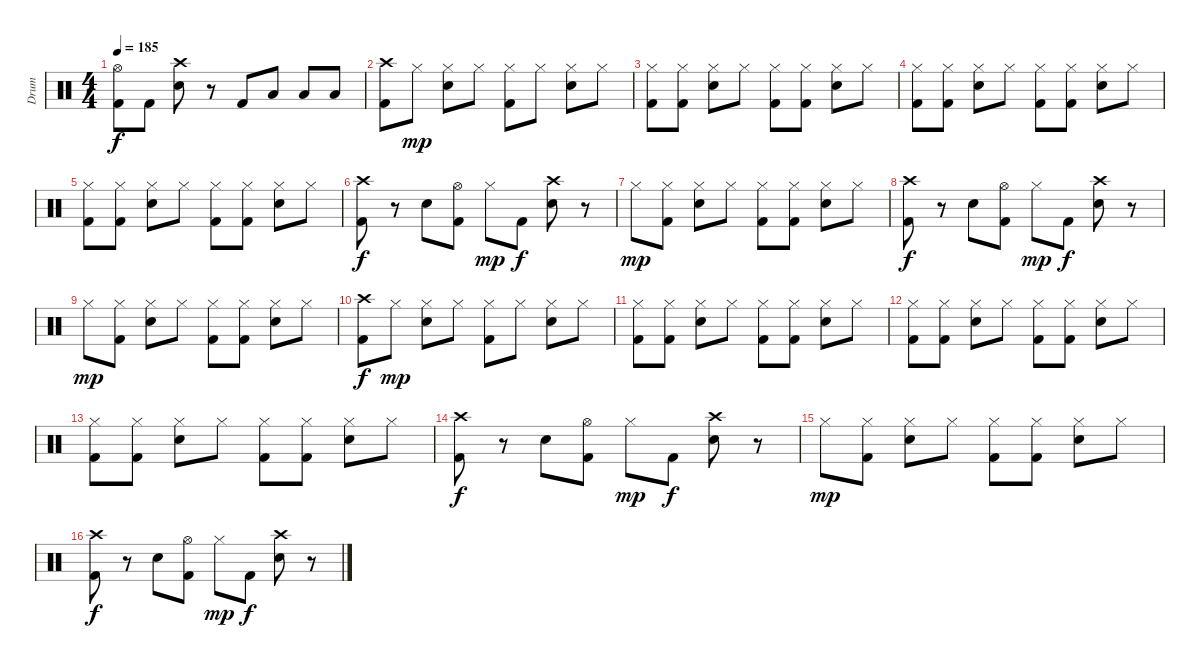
\track ("Drum" "Drum") {instrument percussion}
\staff {score}
\articulation defaults
\ts (4 4)
\tempo 185
\clef neutral
\ks c
("Kick (hit) 2" "Hi-Hat (open)").8{dy f} "Kick (hit) 2".8 ("Crash high (hit)" "Electric Snare (hit)").8 r.8 "Kick (hit) 2".8 "Low Tom (hit)".8 "Low Tom (hit)".8 "Low Tom (hit)".8 |
("Crash high (hit)" "Kick (hit) 2").8 "Hi-Hat (closed)".8{dy mp} ("Hi-Hat (closed)" "Electric Snare (hit)").8 "Hi-Hat (closed)".8 ("Hi-Hat (closed)" "Kick (hit) 2").8 "Hi-Hat (closed)".8 ("Hi-Hat (closed)" "Electric Snare (hit)").8 "Hi-Hat (closed)".8 |
("Hi-Hat (closed)" "Kick (hit) 2").8 ("Hi-Hat (closed)" "Kick (hit) 2").8 ("Hi-Hat (closed)" "Electric Snare (hit)").8 "Hi-Hat (closed)".8 ("Hi-Hat (closed)" "Kick (hit) 2").8 ("Hi-Hat (closed)" "Kick (hit) 2").8 ("Hi-Hat (closed)" "Electric Snare (hit)").8 "Hi-Hat (closed)".8 |
("Hi-Hat (closed)" "Kick (hit) 2").8 ("Hi-Hat (closed)" "Kick (hit) 2").8 ("Hi-Hat (closed)" "Electric Snare (hit)").8 "Hi-Hat (closed)".8 ("Hi-Hat (closed)" "Kick (hit) 2").8 ("Hi-Hat (closed)" "Kick (hit) 2").8 ("Hi-Hat (closed)" "Electric Snare (hit)").8 "Hi-Hat (closed)".8 |
("Hi-Hat (closed)" "Kick (hit) 2").8 ("Hi-Hat (closed)" "Kick (hit) 2").8 ("Hi-Hat (closed)" "Electric Snare (hit)").8 "Hi-Hat (closed)".8 ("Hi-Hat (closed)" "Kick (hit) 2").8 ("Hi-Hat (closed)" "Kick (hit) 2").8 ("Hi-Hat (closed)" "Electric Snare (hit)").8 "Hi-Hat (closed)".8 |
("Crash high (hit)" "Kick (hit) 2").8{dy f} r.8 "Electric Snare (hit)".8 ("Kick (hit) 2" "Hi-Hat (open)").8 "Hi-Hat (closed)".8{dy mp} "Kick (hit) 2".8{dy f} ("Crash high (hit)" "Electric Snare (hit)").8 r.8 |
"Hi-Hat (closed)".8{dy mp} ("Hi-Hat (closed)" "Kick (hit) 2").8 ("Hi-Hat (closed)" "Electric Snare (hit)").8 "Hi-Hat (closed)".8 ("Hi-Hat (closed)" "Kick (hit) 2").8 ("Hi-Hat (closed)" "Kick (hit) 2").8 ("Hi-Hat (closed)" "Electric Snare (hit)").8 "Hi-Hat (closed)".8 |
("Crash high (hit)" "Kick (hit) 2").8{dy f} r.8 "Electric Snare (hit)".8 ("Kick (hit) 2" "Hi-Hat (open)").8 "Hi-Hat (closed)".8{dy mp} "Kick (hit) 2".8{dy f} ("Crash high (hit)" "Electric Snare (hit)").8 r.8 |
"Hi-Hat (closed)".8{dy mp} ("Hi-Hat (closed)" "Kick (hit) 2").8 ("Hi-Hat (closed)" "Electric Snare (hit)").8 "Hi-Hat (closed)".8 ("Hi-Hat (closed)" "Kick (hit) 2").8 ("Hi-Hat (closed)" "Kick (hit) 2").8 ("Hi-Hat (closed)" "Electric Snare (hit)").8 "Hi-Hat (closed)".8 |
("Crash high (hit)" "Kick (hit) 2").8{dy f} "Hi-Hat (closed)".8{dy mp} ("Hi-Hat (closed)" "Electric Snare (hit)").8 "Hi-Hat (closed)".8 ("Hi-Hat (closed)" "Kick (hit) 2").8 "Hi-Hat (closed)".8 ("Hi-Hat (closed)" "Electric Snare (hit)").8 "Hi-Hat (closed)".8 |
("Hi-Hat (closed)" "Kick (hit) 2").8 ("Hi-Hat (closed)" "Kick (hit) 2").8 ("Hi-Hat (closed)" "Electric Snare (hit)").8 "Hi-Hat (closed)".8 ("Hi-Hat (closed)" "Kick (hit) 2").8 ("Hi-Hat (closed)" "Kick (hit) 2").8 ("Hi-Hat (closed)" "Electric Snare (hit)").8 "Hi-Hat (closed)".8 |
("Hi-Hat (closed)" "Kick (hit) 2").8 ("Hi-Hat (closed)" "Kick (hit) 2").8 ("Hi-Hat (closed)" "Electric Snare (hit)").8 "Hi-Hat (closed)".8 ("Hi-Hat (closed)" "Kick (hit) 2").8 ("Hi-Hat (closed)" "Kick (hit) 2").8 ("Hi-Hat (closed)" "Electric Snare (hit)").8 "Hi-Hat (closed)".8 |
("Hi-Hat (closed)" "Kick (hit) 2").8 ("Hi-Hat (closed)" "Kick (hit) 2").8 ("Hi-Hat (closed)" "Electric Snare (hit)").8 "Hi-Hat (closed)".8 ("Hi-Hat (closed)" "Kick (hit) 2").8 ("Hi-Hat (closed)" "Kick (hit) 2").8 ("Hi-Hat (closed)" "Electric Snare (hit)").8 "Hi-Hat (closed)".8 |
("Crash high (hit)" "Kick (hit) 2").8{dy f} r.8 "Electric Snare (hit)".8 ("Kick (hit) 2" "Hi-Hat (open)").8 "Hi-Hat (closed)".8{dy mp} "Kick (hit) 2".8{dy f} ("Crash high (hit)" "Electric Snare (hit)").8 r.8 |
"Hi-Hat (closed)".8{dy mp} ("Hi-Hat (closed)" "Kick (hit) 2").8 ("Hi-Hat (closed)" "Electric Snare (hit)").8 "Hi-Hat (closed)".8 ("Hi-Hat (closed)" "Kick (hit) 2").8 ("Hi-Hat (closed)" "Kick (hit) 2").8 ("Hi-Hat (closed)" "Electric Snare (hit)").8 "Hi-Hat (closed)".8 |
("Crash high (hit)" "Kick (hit) 2").8{dy f} r.8 "Electric Snare (hit)".8 ("Kick (hit) 2" "Hi-Hat (open)").8 "Hi-Hat (closed)".8{dy mp} "Kick (hit) 2".8{dy f} ("Crash high (hit)" "Electric Snare (hit)").8 r.8
